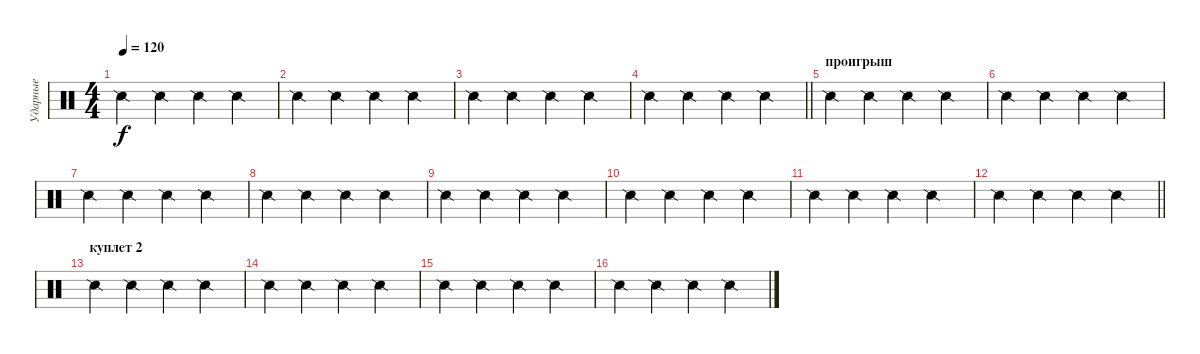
\track ("Ударные" "Ударные") {mute instrument percussion}
\staff {score}
\articulation defaults
\ts (4 4)
\tempo 120
\clef neutral
\ks c "Snare (side stick) 2".4{dy f} "Snare (side stick) 2".4 "Snare (side stick) 2".4 "Snare (side stick) 2".4
|
"Snare (side stick) 2".4 "Snare (side stick) 2".4 "Snare (side stick) 2".4 "Snare (side stick) 2".4 |
"Snare (side stick) 2".4 "Snare (side stick) 2".4 "Snare (side stick) 2".4 "Snare (side stick) 2".4 |
\barLineRight lightlight "Snare (side stick) 2".4 "Snare (side stick) 2".4 "Snare (side stick) 2".4 "Snare (side stick) 2".4
|
\section ("" "проигрыш")
"Snare (side stick) 2".4 "Snare (side stick) 2".4 "Snare (side stick) 2".4 "Snare (side stick) 2".4 |
"Snare (side stick) 2".4 "Snare (side stick) 2".4 "Snare (side stick) 2".4 "Snare (side stick) 2".4 |
"Snare (side stick) 2".4 "Snare (side stick) 2".4 "Snare (side stick) 2".4 "Snare (side stick) 2".4 |
"Snare (side stick) 2".4 "Snare (side stick) 2".4 "Snare (side stick) 2".4 "Snare (side stick) 2".4 |
"Snare (side stick) 2".4 "Snare (side stick) 2".4 "Snare (side stick) 2".4 "Snare (side stick) 2".4 |
"Snare (side stick) 2".4 "Snare (side stick) 2".4 "Snare (side stick) 2".4 "Snare (side stick) 2".4 |
"Snare (side stick) 2".4 "Snare (side stick) 2".4 "Snare (side stick) 2".4 "Snare (side stick) 2".4 |
\barLineRight lightlight "Snare (side stick) 2".4 "Snare (side stick) 2".4 "Snare (side stick) 2".4 "Snare (side stick) 2".4
|
\section ("" "куплет 2")
"Snare (side stick) 2".4 "Snare (side stick) 2".4 "Snare (side stick) 2".4 "Snare (side stick) 2".4 |
"Snare (side stick) 2".4 "Snare (side stick) 2".4 "Snare (side stick) 2".4 "Snare (side stick) 2".4 |
"Snare (side stick) 2".4 "Snare (side stick) 2".4 "Snare (side stick) 2".4 "Snare (side stick) 2".4 |
"Snare (side stick) 2".4 "Snare (side stick) 2".4 "Snare (side stick) 2".4 "Snare (side stick) 2".4
